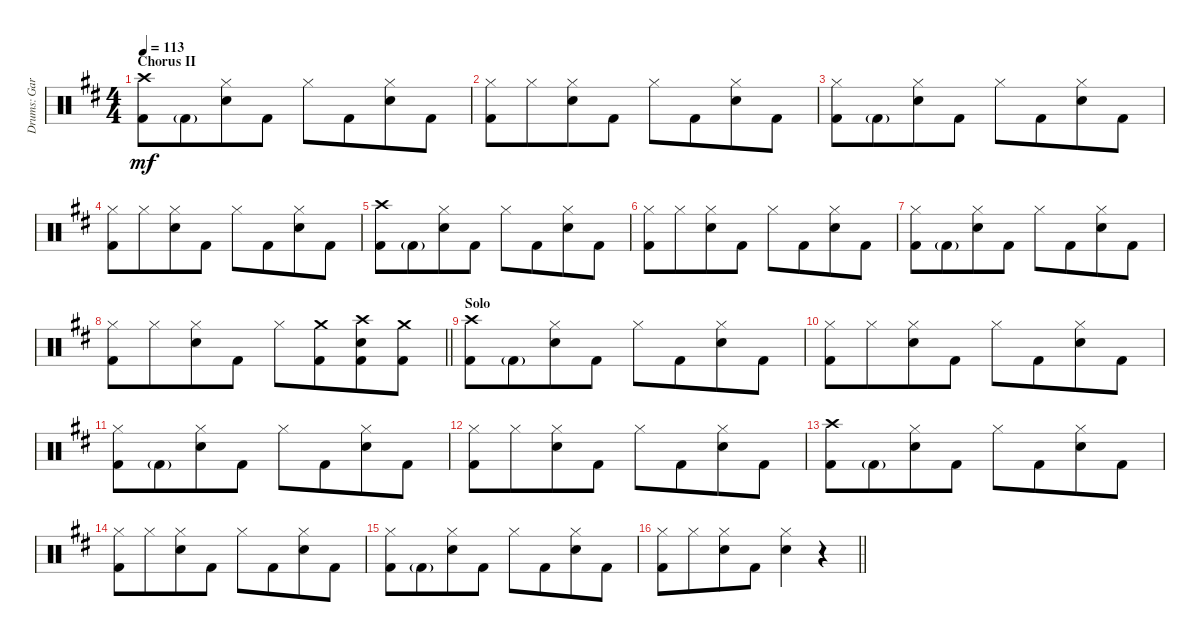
\track ("Drums: Gary" "Drums: Gar") {instrument percussion}
\staff {score}
\articulation defaults
\ts (4 4)
\section ("" "Chorus II")
\tempo 113
\clef neutral
\ks d
("Crash high (hit)" "Kick (hit) 2").8{dy mf} "Kick (hit) 2"{g}.8{beam merge} ("Hi-Hat (closed)" "Snare (hit) 2").8 "Kick (hit) 2".8 "Hi-Hat (closed)".8 "Kick (hit) 2".8{beam merge} ("Hi-Hat (closed)" "Snare (hit) 2").8 "Kick (hit) 2".8 |
("Hi-Hat (closed)" "Kick (hit) 2").8 "Hi-Hat (closed)".8{beam merge} ("Hi-Hat (closed)" "Snare (hit) 2").8 "Kick (hit) 2".8 "Hi-Hat (closed)".8 "Kick (hit) 2".8{beam merge} ("Hi-Hat (closed)" "Snare (hit) 2").8 "Kick (hit) 2".8 |
("Hi-Hat (closed)" "Kick (hit) 2").8 "Kick (hit) 2"{g}.8{beam merge} ("Hi-Hat (closed)" "Snare (hit) 2").8 "Kick (hit) 2".8 "Hi-Hat (closed)".8 "Kick (hit) 2".8{beam merge} ("Hi-Hat (closed)" "Snare (hit) 2").8 "Kick (hit) 2".8 |
("Hi-Hat (closed)" "Kick (hit) 2").8 "Hi-Hat (closed)".8{beam merge} ("Hi-Hat (closed)" "Snare (hit) 2").8 "Kick (hit) 2".8 "Hi-Hat (closed)".8 "Kick (hit) 2".8{beam merge} ("Hi-Hat (closed)" "Snare (hit) 2").8 "Kick (hit) 2".8 |
("Crash high (hit)" "Kick (hit) 2").8 "Kick (hit) 2"{g}.8{beam merge} ("Hi-Hat (closed)" "Snare (hit) 2").8 "Kick (hit) 2".8 "Hi-Hat (closed)".8 "Kick (hit) 2".8{beam merge} ("Hi-Hat (closed)" "Snare (hit) 2").8 "Kick (hit) 2".8 |
("Hi-Hat (closed)" "Kick (hit) 2").8 "Hi-Hat (closed)".8{beam merge} ("Hi-Hat (closed)" "Snare (hit) 2").8 "Kick (hit) 2".8 "Hi-Hat (closed)".8 "Kick (hit) 2".8{beam merge} ("Hi-Hat (closed)" "Snare (hit) 2").8 "Kick (hit) 2".8 |
("Hi-Hat (closed)" "Kick (hit) 2").8 "Kick (hit) 2"{g}.8{beam merge} ("Hi-Hat (closed)" "Snare (hit) 2").8 "Kick (hit) 2".8 "Hi-Hat (closed)".8 "Kick (hit) 2".8{beam merge} ("Hi-Hat (closed)" "Snare (hit) 2").8 "Kick (hit) 2".8 |
\barLineRight lightlight
("Hi-Hat (closed)" "Kick (hit) 2").8 "Hi-Hat (closed)".8{beam merge} ("Hi-Hat (closed)" "Snare (hit) 2").8 "Kick (hit) 2".8 "Hi-Hat (closed)".8 ("Crash medium (hit)" "Kick (hit) 2").8{beam merge} ("Crash high (hit)" "Snare (hit) 2" "Kick (hit) 2").8 ("Crash medium (hit)" "Kick (hit) 2").8 |
\section ("" "Solo")
("Crash high (hit)" "Kick (hit) 2").8 "Kick (hit) 2"{g}.8{beam merge} ("Hi-Hat (closed)" "Snare (hit) 2").8 "Kick (hit) 2".8 "Hi-Hat (closed)".8 "Kick (hit) 2".8{beam merge} ("Hi-Hat (closed)" "Snare (hit) 2").8 "Kick (hit) 2".8 |
("Hi-Hat (closed)" "Kick (hit) 2").8 "Hi-Hat (closed)".8{beam merge} ("Hi-Hat (closed)" "Snare (hit) 2").8 "Kick (hit) 2".8 "Hi-Hat (closed)".8 "Kick (hit) 2".8{beam merge} ("Hi-Hat (closed)" "Snare (hit) 2").8 "Kick (hit) 2".8 |
("Hi-Hat (closed)" "Kick (hit) 2").8 "Kick (hit) 2"{g}.8{beam merge} ("Hi-Hat (closed)" "Snare (hit) 2").8 "Kick (hit) 2".8 "Hi-Hat (closed)".8 "Kick (hit) 2".8{beam merge} ("Hi-Hat (closed)" "Snare (hit) 2").8 "Kick (hit) 2".8 |
("Hi-Hat (closed)" "Kick (hit) 2").8 "Hi-Hat (closed)".8{beam merge} ("Hi-Hat (closed)" "Snare (hit) 2").8 "Kick (hit) 2".8 "Hi-Hat (closed)".8 "Kick (hit) 2".8{beam merge} ("Hi-Hat (closed)" "Snare (hit) 2").8 "Kick (hit) 2".8 |
("Crash high (hit)" "Kick (hit) 2").8 "Kick (hit) 2"{g}.8{beam merge} ("Hi-Hat (closed)" "Snare (hit) 2").8 "Kick (hit) 2".8 "Hi-Hat (closed)".8 "Kick (hit) 2".8{beam merge} ("Hi-Hat (closed)" "Snare (hit) 2").8 "Kick (hit) 2".8 |
("Hi-Hat (closed)" "Kick (hit) 2").8 "Hi-Hat (closed)".8{beam merge} ("Hi-Hat (closed)" "Snare (hit) 2").8 "Kick (hit) 2".8 "Hi-Hat (closed)".8 "Kick (hit) 2".8{beam merge} ("Hi-Hat (closed)" "Snare (hit) 2").8 "Kick (hit) 2".8 |
("Hi-Hat (closed)" "Kick (hit) 2").8 "Kick (hit) 2"{g}.8{beam merge} ("Hi-Hat (closed)" "Snare (hit) 2").8 "Kick (hit) 2".8 "Hi-Hat (closed)".8 "Kick (hit) 2".8{beam merge} ("Hi-Hat (closed)" "Snare (hit) 2").8 "Kick (hit) 2".8 |
\barLineRight lightlight
("Hi-Hat (closed)" "Kick (hit) 2").8 "Hi-Hat (closed)".8{beam merge} ("Hi-Hat (closed)" "Snare (hit) 2").8 "Kick (hit) 2".8{beam merge} ("Hi-Hat (closed)" "Snare (hit) 2").4 r.4
